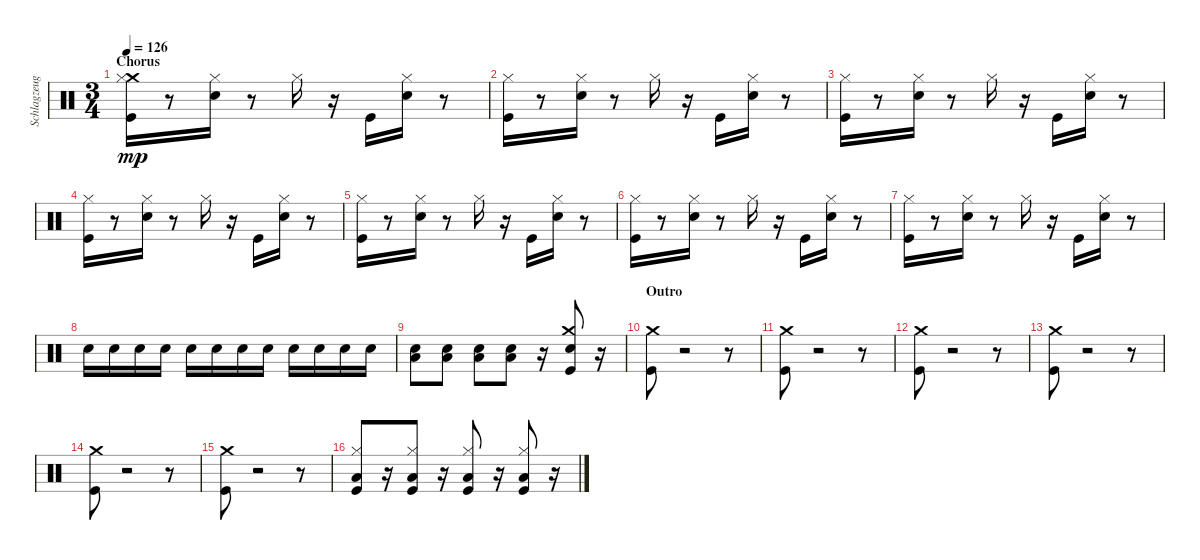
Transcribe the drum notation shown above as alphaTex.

\track ("Schlagzeug - Bela B." "Schlagzeug") {instrument percussion}
\staff {score}
\articulation defaults
\ts (3 4)
\section ("" "Chorus")
\tempo 126
\clef neutral
\ks c
("Kick (hit)" "Crash medium (hit)" "Hi-Hat (closed)").16{dy mp} r.8 ("Electric Snare (hit)" "Hi-Hat (closed)").16 r.8 "Hi-Hat (closed)".16 r.16 "Kick (hit)".16 ("Electric Snare (hit)" "Hi-Hat (closed)").16 r.8 |
("Kick (hit)" "Hi-Hat (closed)").16 r.8 ("Electric Snare (hit)" "Hi-Hat (closed)").16 r.8 "Hi-Hat (closed)".16 r.16 "Kick (hit)".16 ("Electric Snare (hit)" "Hi-Hat (closed)").16 r.8 |
("Kick (hit)" "Hi-Hat (closed)").16 r.8 ("Electric Snare (hit)" "Hi-Hat (closed)").16 r.8 "Hi-Hat (closed)".16 r.16 "Kick (hit)".16 ("Electric Snare (hit)" "Hi-Hat (closed)").16 r.8 |
("Kick (hit)" "Hi-Hat (closed)").16 r.8 ("Electric Snare (hit)" "Hi-Hat (closed)").16 r.8 "Hi-Hat (closed)".16 r.16 "Kick (hit)".16 ("Electric Snare (hit)" "Hi-Hat (closed)").16 r.8 |
("Kick (hit)" "Hi-Hat (closed)").16 r.8 ("Electric Snare (hit)" "Hi-Hat (closed)").16 r.8 "Hi-Hat (closed)".16 r.16 "Kick (hit)".16 ("Electric Snare (hit)" "Hi-Hat (closed)").16 r.8 |
("Kick (hit)" "Hi-Hat (closed)").16 r.8 ("Electric Snare (hit)" "Hi-Hat (closed)").16 r.8 "Hi-Hat (closed)".16 r.16 "Kick (hit)".16 ("Electric Snare (hit)" "Hi-Hat (closed)").16 r.8 |
("Kick (hit)" "Hi-Hat (closed)").16 r.8 ("Electric Snare (hit)" "Hi-Hat (closed)").16 r.8 "Hi-Hat (closed)".16 r.16 "Kick (hit)".16 ("Electric Snare (hit)" "Hi-Hat (closed)").16 r.8 |
"Electric Snare (hit)".16 "Electric Snare (hit)".16 "Electric Snare (hit)".16 "Electric Snare (hit)".16 "Electric Snare (hit)".16 "Electric Snare (hit)".16 "Electric Snare (hit)".16 "Electric Snare (hit)".16 "Electric Snare (hit)".16 "Electric Snare (hit)".16 "Electric Snare (hit)".16 "Electric Snare (hit)".16 |
("Electric Snare (hit)" "Low Floor Tom (hit)").8 ("Electric Snare (hit)" "Low Floor Tom (hit)").8 ("Electric Snare (hit)" "Low Floor Tom (hit)").8 ("Electric Snare (hit)" "Low Floor Tom (hit)").8 r.16 ("Electric Snare (hit)" "Crash medium (hit)" "Kick (hit)").8 r.16 |
\section ("" "Outro")
("Kick (hit)" "Crash medium (hit)").8 r.2 r.8 |
("Kick (hit)" "Crash medium (hit)").8 r.2 r.8 |
("Kick (hit)" "Crash medium (hit)").8 r.2 r.8 |
("Kick (hit)" "Crash medium (hit)").8 r.2 r.8 |
("Kick (hit)" "Crash medium (hit)").8 r.2 r.8 |
("Kick (hit)" "Crash medium (hit)").8 r.2 r.8 |
("Kick (hit)" "Hi-Hat (closed)" "Low Floor Tom (hit)").8 r.16 ("Kick (hit)" "Hi-Hat (closed)" "Low Floor Tom (hit)").8 r.16 ("Kick (hit)" "Hi-Hat (closed)" "Low Floor Tom (hit)").8 r.16 ("Kick (hit)" "Hi-Hat (closed)" "Low Floor Tom (hit)").8 r.16
